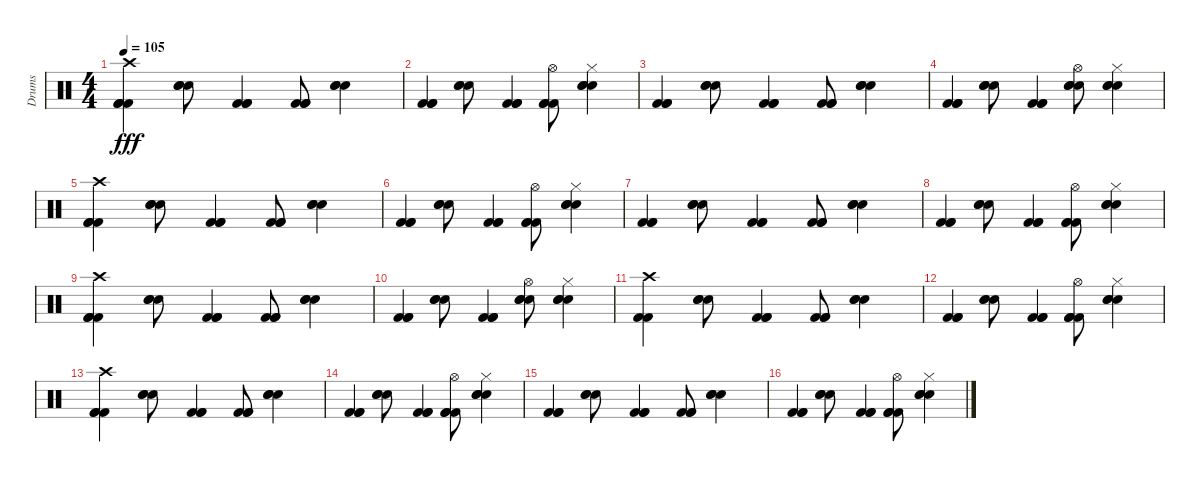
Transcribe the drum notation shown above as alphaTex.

\track ("Drums" "Drums") {instrument percussion}
\staff {score}
\articulation defaults
\ts (4 4)
\tempo 105
\clef neutral
\ks c
("Kick (hit) 2" "Kick (hit) 2" "Kick (hit) 2" "Crash high (hit)").4{dy fff} ("Electric Snare (hit)" "Electric Snare (hit)" "Electric Snare (hit)").8 ("Kick (hit) 2" "Kick (hit) 2" "Kick (hit) 2").4 ("Kick (hit) 2" "Kick (hit) 2" "Kick (hit) 2").8 ("Electric Snare (hit)" "Electric Snare (hit)" "Electric Snare (hit)").4 |
("Kick (hit) 2" "Kick (hit) 2" "Kick (hit) 2").4 ("Electric Snare (hit)" "Electric Snare (hit)" "Electric Snare (hit)").8 ("Kick (hit) 2" "Kick (hit) 2" "Kick (hit) 2").4 ("Kick (hit) 2" "Kick (hit) 2" "Kick (hit) 2" "Hi-Hat (open)").8 ("Electric Snare (hit)" "Electric Snare (hit)" "Electric Snare (hit)" "Hi-Hat (closed)").4 |
("Kick (hit) 2" "Kick (hit) 2" "Kick (hit) 2").4 ("Electric Snare (hit)" "Electric Snare (hit)" "Electric Snare (hit)").8 ("Kick (hit) 2" "Kick (hit) 2" "Kick (hit) 2").4 ("Kick (hit) 2" "Kick (hit) 2" "Kick (hit) 2").8 ("Electric Snare (hit)" "Electric Snare (hit)" "Electric Snare (hit)").4 |
("Kick (hit) 2" "Kick (hit) 2" "Kick (hit) 2").4 ("Electric Snare (hit)" "Electric Snare (hit)" "Electric Snare (hit)").8 ("Kick (hit) 2" "Kick (hit) 2" "Kick (hit) 2").4 ("Electric Snare (hit)" "Electric Snare (hit)" "Electric Snare (hit)" "Hi-Hat (open)").8 ("Electric Snare (hit)" "Electric Snare (hit)" "Electric Snare (hit)" "Hi-Hat (closed)").4 |
("Kick (hit) 2" "Kick (hit) 2" "Kick (hit) 2" "Crash high (hit)").4 ("Electric Snare (hit)" "Electric Snare (hit)" "Electric Snare (hit)").8 ("Kick (hit) 2" "Kick (hit) 2" "Kick (hit) 2").4 ("Kick (hit) 2" "Kick (hit) 2" "Kick (hit) 2").8 ("Electric Snare (hit)" "Electric Snare (hit)" "Electric Snare (hit)").4 |
("Kick (hit) 2" "Kick (hit) 2" "Kick (hit) 2").4 ("Electric Snare (hit)" "Electric Snare (hit)" "Electric Snare (hit)").8 ("Kick (hit) 2" "Kick (hit) 2" "Kick (hit) 2").4 ("Kick (hit) 2" "Kick (hit) 2" "Kick (hit) 2" "Hi-Hat (open)").8 ("Electric Snare (hit)" "Electric Snare (hit)" "Electric Snare (hit)" "Hi-Hat (closed)").4 |
("Kick (hit) 2" "Kick (hit) 2" "Kick (hit) 2").4 ("Electric Snare (hit)" "Electric Snare (hit)" "Electric Snare (hit)").8 ("Kick (hit) 2" "Kick (hit) 2" "Kick (hit) 2").4 ("Kick (hit) 2" "Kick (hit) 2" "Kick (hit) 2").8 ("Electric Snare (hit)" "Electric Snare (hit)" "Electric Snare (hit)").4 |
("Kick (hit) 2" "Kick (hit) 2" "Kick (hit) 2").4 ("Electric Snare (hit)" "Electric Snare (hit)" "Electric Snare (hit)").8 ("Kick (hit) 2" "Kick (hit) 2" "Kick (hit) 2").4 ("Kick (hit) 2" "Kick (hit) 2" "Kick (hit) 2" "Hi-Hat (open)").8 ("Electric Snare (hit)" "Electric Snare (hit)" "Electric Snare (hit)" "Hi-Hat (closed)").4 |
("Kick (hit) 2" "Kick (hit) 2" "Kick (hit) 2" "Crash high (hit)").4 ("Electric Snare (hit)" "Electric Snare (hit)" "Electric Snare (hit)").8 ("Kick (hit) 2" "Kick (hit) 2" "Kick (hit) 2").4 ("Kick (hit) 2" "Kick (hit) 2" "Kick (hit) 2").8 ("Electric Snare (hit)" "Electric Snare (hit)" "Electric Snare (hit)").4 |
("Kick (hit) 2" "Kick (hit) 2" "Kick (hit) 2").4 ("Electric Snare (hit)" "Electric Snare (hit)" "Electric Snare (hit)").8 ("Kick (hit) 2" "Kick (hit) 2" "Kick (hit) 2").4 ("Electric Snare (hit)" "Electric Snare (hit)" "Electric Snare (hit)" "Hi-Hat (open)").8 ("Electric Snare (hit)" "Electric Snare (hit)" "Electric Snare (hit)" "Hi-Hat (closed)").4 |
("Kick (hit) 2" "Kick (hit) 2" "Crash high (hit)").4 ("Electric Snare (hit)" "Electric Snare (hit)" "Electric Snare (hit)").8 ("Kick (hit) 2" "Kick (hit) 2" "Kick (hit) 2").4 ("Kick (hit) 2" "Kick (hit) 2" "Kick (hit) 2").8 ("Electric Snare (hit)" "Electric Snare (hit)" "Electric Snare (hit)").4 |
("Kick (hit) 2" "Kick (hit) 2" "Kick (hit) 2").4 ("Electric Snare (hit)" "Electric Snare (hit)" "Electric Snare (hit)").8 ("Kick (hit) 2" "Kick (hit) 2" "Kick (hit) 2").4 ("Kick (hit) 2" "Kick (hit) 2" "Kick (hit) 2" "Hi-Hat (open)").8 ("Electric Snare (hit)" "Electric Snare (hit)" "Electric Snare (hit)" "Hi-Hat (closed)").4 |
("Kick (hit) 2" "Kick (hit) 2" "Kick (hit) 2" "Crash high (hit)").4 ("Electric Snare (hit)" "Electric Snare (hit)" "Electric Snare (hit)").8 ("Kick (hit) 2" "Kick (hit) 2" "Kick (hit) 2").4 ("Kick (hit) 2" "Kick (hit) 2" "Kick (hit) 2").8 ("Electric Snare (hit)" "Electric Snare (hit)" "Electric Snare (hit)").4 |
("Kick (hit) 2" "Kick (hit) 2" "Kick (hit) 2").4 ("Electric Snare (hit)" "Electric Snare (hit)" "Electric Snare (hit)").8 ("Kick (hit) 2" "Kick (hit) 2" "Kick (hit) 2").4 ("Kick (hit) 2" "Kick (hit) 2" "Kick (hit) 2" "Hi-Hat (open)").8 ("Electric Snare (hit)" "Electric Snare (hit)" "Electric Snare (hit)" "Hi-Hat (closed)").4 |
("Kick (hit) 2" "Kick (hit) 2" "Kick (hit) 2").4 ("Electric Snare (hit)" "Electric Snare (hit)" "Electric Snare (hit)").8 ("Kick (hit) 2" "Kick (hit) 2" "Kick (hit) 2").4 ("Kick (hit) 2" "Kick (hit) 2" "Kick (hit) 2").8 ("Electric Snare (hit)" "Electric Snare (hit)" "Electric Snare (hit)").4 |
("Kick (hit) 2" "Kick (hit) 2" "Kick (hit) 2").4 ("Electric Snare (hit)" "Electric Snare (hit)" "Electric Snare (hit)").8 ("Kick (hit) 2" "Kick (hit) 2" "Kick (hit) 2").4 ("Kick (hit) 2" "Kick (hit) 2" "Kick (hit) 2" "Hi-Hat (open)").8 ("Electric Snare (hit)" "Electric Snare (hit)" "Electric Snare (hit)" "Hi-Hat (closed)").4
